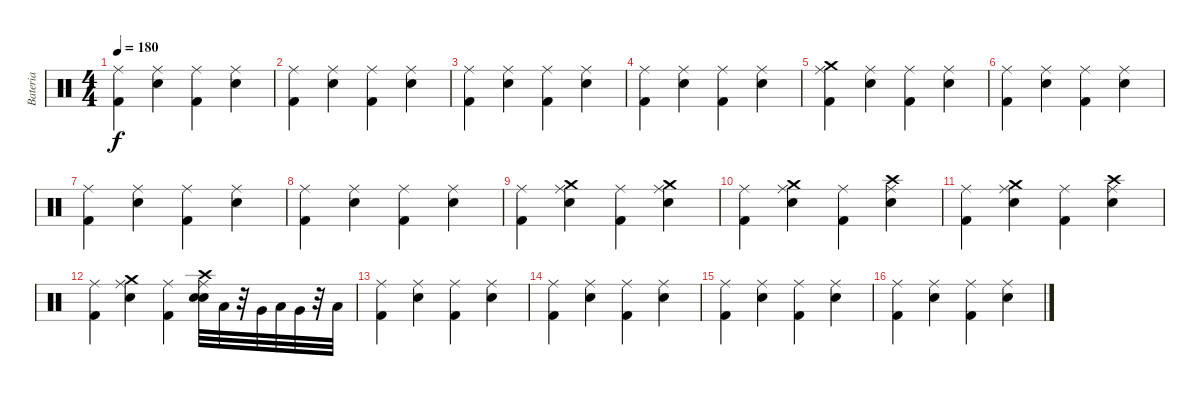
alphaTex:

\track ("Bateria" "Bateria") {instrument percussion}
\staff {score}
\articulation defaults
\ts (4 4)
\tempo 180
\clef neutral
\ks c
("Ride (middle)" "Kick (hit) 2").4{dy f} ("Ride (middle)" "Snare (hit) 2").4 ("Ride (middle)" "Kick (hit) 2").4 ("Ride (middle)" "Snare (hit) 2").4 |
("Ride (middle)" "Kick (hit) 2").4 ("Ride (middle)" "Snare (hit) 2").4 ("Ride (middle)" "Kick (hit) 2").4 ("Ride (middle)" "Snare (hit) 2").4 |
("Ride (middle)" "Kick (hit) 2").4 ("Ride (middle)" "Snare (hit) 2").4 ("Ride (middle)" "Kick (hit) 2").4 ("Ride (middle)" "Snare (hit) 2").4 |
("Ride (middle)" "Kick (hit) 2").4 ("Ride (middle)" "Snare (hit) 2").4 ("Ride (middle)" "Kick (hit) 2").4 ("Ride (middle)" "Snare (hit) 2").4 |
("Crash medium (hit)" "Ride (middle)" "Kick (hit) 2").4 ("Ride (middle)" "Snare (hit) 2").4 ("Ride (middle)" "Kick (hit) 2").4 ("Ride (middle)" "Snare (hit) 2").4 |
("Ride (middle)" "Kick (hit) 2").4 ("Ride (middle)" "Snare (hit) 2").4 ("Ride (middle)" "Kick (hit) 2").4 ("Ride (middle)" "Snare (hit) 2").4 |
("Ride (middle)" "Kick (hit) 2").4 ("Ride (middle)" "Snare (hit) 2").4 ("Ride (middle)" "Kick (hit) 2").4 ("Ride (middle)" "Snare (hit) 2").4 |
("Ride (middle)" "Kick (hit) 2").4 ("Ride (middle)" "Snare (hit) 2").4 ("Ride (middle)" "Kick (hit) 2").4 ("Ride (middle)" "Snare (hit) 2").4 |
("Ride (middle)" "Kick (hit) 2").4 ("Crash medium (hit)" "Ride (middle)" "Snare (hit) 2").4 ("Ride (middle)" "Kick (hit) 2").4 ("Crash medium (hit)" "Ride (middle)" "Snare (hit) 2").4 |
("Ride (middle)" "Kick (hit) 2").4 ("Crash medium (hit)" "Ride (middle)" "Snare (hit) 2").4 ("Ride (middle)" "Kick (hit) 2").4 ("Crash high (hit)" "Ride (middle)" "Snare (hit) 2").4 |
("Ride (middle)" "Kick (hit) 2").4 ("Crash medium (hit)" "Ride (middle)" "Snare (hit) 2").4 ("Ride (middle)" "Kick (hit) 2").4 ("Crash high (hit)" "Ride (middle)" "Snare (hit) 2").4 |
("Ride (middle)" "Kick (hit) 2").4 ("Crash medium (hit)" "Ride (middle)" "Snare (hit) 2").4 ("Ride (middle)" "Kick (hit) 2").4 ("Snare (hit) 2" "Crash high (hit)" "Ride (middle)" "Snare (hit) 2").32 "Low Tom (hit)".32 r.32 "Very Low Tom (hit)".32 "Low Tom (hit)".32 "Very Low Tom (hit)".32 r.32 "Low Floor Tom (hit)".32 |
("Ride (middle)" "Kick (hit) 2").4 ("Ride (middle)" "Snare (hit) 2").4 ("Ride (middle)" "Kick (hit) 2").4 ("Ride (middle)" "Snare (hit) 2").4 |
("Ride (middle)" "Kick (hit) 2").4 ("Ride (middle)" "Snare (hit) 2").4 ("Ride (middle)" "Kick (hit) 2").4 ("Ride (middle)" "Snare (hit) 2").4 |
("Ride (middle)" "Kick (hit) 2").4 ("Ride (middle)" "Snare (hit) 2").4 ("Ride (middle)" "Kick (hit) 2").4 ("Ride (middle)" "Snare (hit) 2").4 |
("Ride (middle)" "Kick (hit) 2").4 ("Ride (middle)" "Snare (hit) 2").4 ("Ride (middle)" "Kick (hit) 2").4 ("Ride (middle)" "Snare (hit) 2").4
